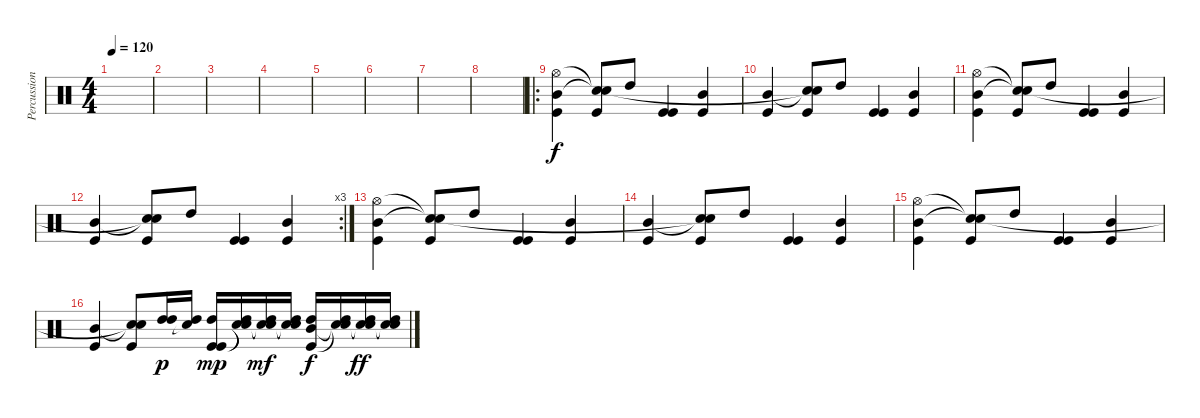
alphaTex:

\track ("Percussions" "Percussion") {instrument percussion}
\staff {score}
\articulation defaults
\ts (4 4)
\tempo 120
\clef neutral
\ks c
|
|
|
|
|
|
|
|
\ro
("Kick (hit)" "Mid Tom (hit)" "Hi-Hat (open)").4{dy f} ("Kick (hit)" "Snare (hit)"{t} "Snare (hit)"{t}).8 "High Tom (hit)".8 ("Kick (hit)" "Kick (hit)").4 ("Kick (hit)" "Mid Tom (hit)").4 |
("Kick (hit)" "Mid Tom (hit)").4 ("Kick (hit)" "Snare (hit)"{t} "Snare (hit)"{t}).8 "High Tom (hit)".8 ("Kick (hit)" "Kick (hit)").4 ("Kick (hit)" "Mid Tom (hit)").4 |
("Kick (hit)" "Mid Tom (hit)" "Hi-Hat (open)").4 ("Kick (hit)" "Snare (hit)"{t} "Snare (hit)"{t}).8 "High Tom (hit)".8 ("Kick (hit)" "Kick (hit)").4 ("Kick (hit)" "Mid Tom (hit)").4 |
\rc 3
("Kick (hit)" "Mid Tom (hit)").4 ("Kick (hit)" "Snare (hit)"{t} "Snare (hit)"{t}).8 "High Tom (hit)".8 ("Kick (hit)" "Kick (hit)").4 ("Kick (hit)" "Mid Tom (hit)").4 |
("Kick (hit)" "Mid Tom (hit)" "Hi-Hat (open)").4 ("Kick (hit)" "Snare (hit)"{t} "Snare (hit)"{t}).8 "High Tom (hit)".8 ("Kick (hit)" "Kick (hit)").4 ("Kick (hit)" "Mid Tom (hit)").4 |
("Kick (hit)" "Mid Tom (hit)").4 ("Kick (hit)" "Snare (hit)"{t} "Snare (hit)"{t}).8 "High Tom (hit)".8 ("Kick (hit)" "Kick (hit)").4 ("Kick (hit)" "Mid Tom (hit)").4 |
("Kick (hit)" "Mid Tom (hit)" "Hi-Hat (open)").4 ("Kick (hit)" "Snare (hit)"{t} "Snare (hit)"{t}).8 "High Tom (hit)".8 ("Kick (hit)" "Kick (hit)").4 ("Kick (hit)" "Mid Tom (hit)").4 |
("Kick (hit)" "Mid Tom (hit)").4 ("Kick (hit)" "Snare (hit)"{t} "Snare (hit)"{t}).8 ("High Tom (hit)" "High Tom (hit)").16{dy p} ("Snare (hit)"{t} "High Tom (hit)").16 ("Kick (hit)" "Kick (hit)" "High Tom (hit)").16{dy mp} ("Snare (hit)"{t} "Snare (hit)"{t} "High Tom (hit)").16 ("Snare (hit)"{t} "Snare (hit)"{t} "High Tom (hit)").16{dy mf} ("Snare (hit)"{t} "Snare (hit)"{t} "High Tom (hit)").16 ("Kick (hit)" "Mid Tom (hit)" "High Tom (hit)").16{dy f} ("Snare (hit)"{t} "Snare (hit)"{t} "High Tom (hit)").16 ("Snare (hit)"{t} "Snare (hit)"{t} "High Tom (hit)").16{dy ff} ("Snare (hit)"{t} "Snare (hit)"{t} "High Tom (hit)").16
